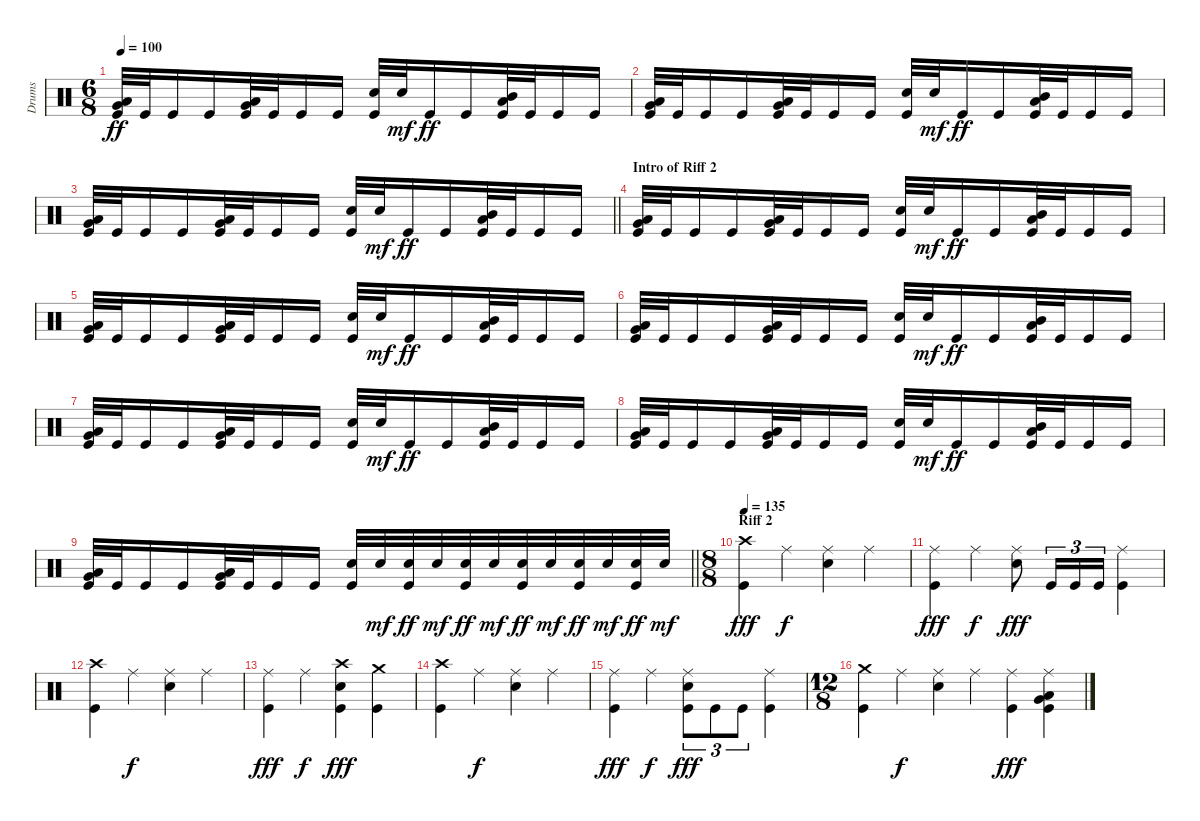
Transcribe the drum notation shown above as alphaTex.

\track ("Drums" "Drums") {instrument percussion}
\staff
\articulation defaults
\ts (6 8)
\tempo 100
\clef neutral
\ks c
("Low Tom (hit)" "Very Low Tom (hit)" "Kick (hit)").32{dy ff} "Kick (hit)".32 "Kick (hit)".16 "Kick (hit)".16 ("Very Low Tom (hit)" "Low Floor Tom (hit)" "Kick (hit)").32 "Kick (hit)".32 "Kick (hit)".16 "Kick (hit)".16 ("Snare (hit) 2" "Kick (hit)").32 "Snare (hit) 2".32{dy mf} "Kick (hit)".16{dy ff} "Kick (hit)".16 ("Mid Tom (hit)" "Low Tom (hit)" "Kick (hit)").32 "Kick (hit)".32 "Kick (hit)".16 "Kick (hit)".16 |
("Low Tom (hit)" "Very Low Tom (hit)" "Kick (hit)").32 "Kick (hit)".32 "Kick (hit)".16 "Kick (hit)".16 ("Very Low Tom (hit)" "Low Floor Tom (hit)" "Kick (hit)").32 "Kick (hit)".32 "Kick (hit)".16 "Kick (hit)".16 ("Snare (hit) 2" "Kick (hit)").32 "Snare (hit) 2".32{dy mf} "Kick (hit)".16{dy ff} "Kick (hit)".16 ("Mid Tom (hit)" "Low Tom (hit)" "Kick (hit)").32 "Kick (hit)".32 "Kick (hit)".16 "Kick (hit)".16 |
\barLineRight lightlight
("Low Tom (hit)" "Very Low Tom (hit)" "Kick (hit)").32 "Kick (hit)".32 "Kick (hit)".16 "Kick (hit)".16 ("Very Low Tom (hit)" "Low Floor Tom (hit)" "Kick (hit)").32 "Kick (hit)".32 "Kick (hit)".16 "Kick (hit)".16 ("Snare (hit) 2" "Kick (hit)").32 "Snare (hit) 2".32{dy mf} "Kick (hit)".16{dy ff} "Kick (hit)".16 ("Mid Tom (hit)" "Low Tom (hit)" "Kick (hit)").32 "Kick (hit)".32 "Kick (hit)".16 "Kick (hit)".16 |
\section ("" "Intro of Riff 2")
("Low Tom (hit)" "Very Low Tom (hit)" "Kick (hit)").32 "Kick (hit)".32 "Kick (hit)".16 "Kick (hit)".16 ("Very Low Tom (hit)" "Low Floor Tom (hit)" "Kick (hit)").32 "Kick (hit)".32 "Kick (hit)".16 "Kick (hit)".16 ("Snare (hit) 2" "Kick (hit)").32 "Snare (hit) 2".32{dy mf} "Kick (hit)".16{dy ff} "Kick (hit)".16 ("Mid Tom (hit)" "Low Tom (hit)" "Kick (hit)").32 "Kick (hit)".32 "Kick (hit)".16 "Kick (hit)".16 |
("Low Tom (hit)" "Very Low Tom (hit)" "Kick (hit)").32 "Kick (hit)".32 "Kick (hit)".16 "Kick (hit)".16 ("Very Low Tom (hit)" "Low Floor Tom (hit)" "Kick (hit)").32 "Kick (hit)".32 "Kick (hit)".16 "Kick (hit)".16 ("Snare (hit) 2" "Kick (hit)").32 "Snare (hit) 2".32{dy mf} "Kick (hit)".16{dy ff} "Kick (hit)".16 ("Mid Tom (hit)" "Low Tom (hit)" "Kick (hit)").32 "Kick (hit)".32 "Kick (hit)".16 "Kick (hit)".16 |
("Low Tom (hit)" "Very Low Tom (hit)" "Kick (hit)").32 "Kick (hit)".32 "Kick (hit)".16 "Kick (hit)".16 ("Very Low Tom (hit)" "Low Floor Tom (hit)" "Kick (hit)").32 "Kick (hit)".32 "Kick (hit)".16 "Kick (hit)".16 ("Snare (hit) 2" "Kick (hit)").32 "Snare (hit) 2".32{dy mf} "Kick (hit)".16{dy ff} "Kick (hit)".16 ("Mid Tom (hit)" "Low Tom (hit)" "Kick (hit)").32 "Kick (hit)".32 "Kick (hit)".16 "Kick (hit)".16 |
("Low Tom (hit)" "Very Low Tom (hit)" "Kick (hit)").32 "Kick (hit)".32 "Kick (hit)".16 "Kick (hit)".16 ("Very Low Tom (hit)" "Low Floor Tom (hit)" "Kick (hit)").32 "Kick (hit)".32 "Kick (hit)".16 "Kick (hit)".16 ("Snare (hit) 2" "Kick (hit)").32 "Snare (hit) 2".32{dy mf} "Kick (hit)".16{dy ff} "Kick (hit)".16 ("Mid Tom (hit)" "Low Tom (hit)" "Kick (hit)").32 "Kick (hit)".32 "Kick (hit)".16 "Kick (hit)".16 |
("Low Tom (hit)" "Very Low Tom (hit)" "Kick (hit)").32 "Kick (hit)".32 "Kick (hit)".16 "Kick (hit)".16 ("Very Low Tom (hit)" "Low Floor Tom (hit)" "Kick (hit)").32 "Kick (hit)".32 "Kick (hit)".16 "Kick (hit)".16 ("Snare (hit) 2" "Kick (hit)").32 "Snare (hit) 2".32{dy mf} "Kick (hit)".16{dy ff} "Kick (hit)".16 ("Mid Tom (hit)" "Low Tom (hit)" "Kick (hit)").32 "Kick (hit)".32 "Kick (hit)".16 "Kick (hit)".16 |
\barLineRight lightlight
("Low Tom (hit)" "Very Low Tom (hit)" "Kick (hit)").32 "Kick (hit)".32 "Kick (hit)".16 "Kick (hit)".16 ("Very Low Tom (hit)" "Low Floor Tom (hit)" "Kick (hit)").32 "Kick (hit)".32 "Kick (hit)".16 "Kick (hit)".16 ("Snare (hit) 2" "Kick (hit)").32 "Snare (hit) 2".32{dy mf} ("Snare (hit) 2" "Kick (hit)").32{dy ff} "Snare (hit) 2".32{dy mf} ("Snare (hit) 2" "Kick (hit)").32{dy ff} "Snare (hit) 2".32{dy mf} ("Snare (hit) 2" "Kick (hit)").32{dy ff} "Snare (hit) 2".32{dy mf} ("Snare (hit) 2" "Kick (hit)").32{dy ff} "Snare (hit) 2".32{dy mf} ("Snare (hit) 2" "Kick (hit)").32{dy ff} "Snare (hit) 2".32{dy mf} |
\ts (8 8)
\section ("" "Riff 2")
\tempo 135
("Crash high (hit)" "Kick (hit)").4{dy fff} "Ride (middle)".4{dy f} ("Ride (middle)" "Snare (hit) 2").4 "Ride (middle)".4 |
("Ride (middle)" "Kick (hit)").4{dy fff} "Ride (middle)".4{dy f} ("Ride (middle)" "Snare (hit) 2").8{dy fff} "Kick (hit)".16{tu (3 2)} "Kick (hit)".16{tu (3 2)} "Kick (hit)".16{tu (3 2)} ("Ride (middle)" "Kick (hit)").4 |
("Crash high (hit)" "Kick (hit)").4 "Ride (middle)".4{dy f} ("Ride (middle)" "Snare (hit) 2").4 "Ride (middle)".4 |
("Ride (middle)" "Kick (hit)").4{dy fff} "Ride (middle)".4{dy f} ("Crash high (hit)" "Snare (hit) 2" "Kick (hit)").4{dy fff} ("Crash medium (hit)" "Kick (hit)").4 |
("Crash high (hit)" "Kick (hit)").4 "Ride (middle)".4{dy f} ("Ride (middle)" "Snare (hit) 2").4 "Ride (middle)".4 |
("Ride (middle)" "Kick (hit)").4{dy fff} "Ride (middle)".4{dy f} ("Ride (middle)" "Snare (hit) 2" "Kick (hit)").8{tu (3 2) dy fff} "Kick (hit)".8{tu (3 2)} "Kick (hit)".8{tu (3 2)} ("Ride (middle)" "Kick (hit)").4 |
\ts (12 8)
("Crash medium (hit)" "Kick (hit)").4 "Ride (middle)".4{dy f} ("Ride (middle)" "Snare (hit) 2").4 "Ride (middle)".4 ("Ride (middle)" "Kick (hit)").4{dy fff} ("Ride (middle)" "Very Low Tom (hit)" "Low Floor Tom (hit)" "Kick (hit)").4
